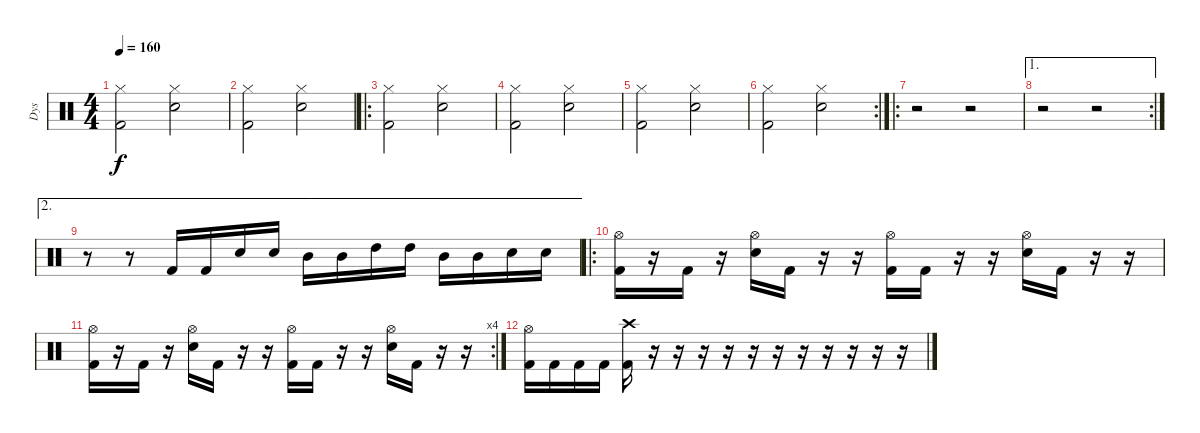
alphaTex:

\track ("Dys" "Dys") {instrument percussion}
\staff {score}
\articulation defaults
\ts (4 4)
\tempo 160
\clef neutral
\ks c
("Hi-Hat (closed)" "Kick (hit) 2").2{dy f} ("Hi-Hat (closed)" "Snare (hit) 2").2 |
("Hi-Hat (closed)" "Kick (hit) 2").2 ("Hi-Hat (closed)" "Snare (hit) 2").2 |
\ro
("Hi-Hat (closed)" "Kick (hit) 2").2 ("Hi-Hat (closed)" "Snare (hit) 2").2 |
("Hi-Hat (closed)" "Kick (hit) 2").2 ("Hi-Hat (closed)" "Snare (hit) 2").2 |
("Hi-Hat (closed)" "Kick (hit) 2").2 ("Hi-Hat (closed)" "Snare (hit) 2").2 |
\rc 2
("Hi-Hat (closed)" "Kick (hit) 2").2 ("Hi-Hat (closed)" "Snare (hit) 2").2 |
\ro
r.2 r.2 |
\ae 1
\rc 2
r.2 r.2 |
\ae 2
r.8 r.8 "Kick (hit) 2".16 "Kick (hit) 2".16 "Snare (hit) 2".16 "Snare (hit) 2".16 "Mid Tom (hit)".16 "Mid Tom (hit)".16 "High Tom (hit)".16 "High Tom (hit)".16 "Mid Tom (hit)".16 "Mid Tom (hit)".16 "Snare (hit) 2".16 "Snare (hit) 2".16 |
\ro
("Hi-Hat (open)" "Kick (hit) 2").16 r.16 "Kick (hit) 2".16 r.16 ("Hi-Hat (open)" "Snare (hit) 2").16 "Kick (hit) 2".16 r.16 r.16 ("Hi-Hat (open)" "Kick (hit) 2").16 "Kick (hit) 2".16 r.16 r.16 ("Hi-Hat (open)" "Snare (hit) 2").16 "Kick (hit) 2".16 r.16 r.16 |
\rc 4
("Hi-Hat (open)" "Kick (hit) 2").16 r.16 "Kick (hit) 2".16 r.16 ("Hi-Hat (open)" "Snare (hit) 2").16 "Kick (hit) 2".16 r.16 r.16 ("Hi-Hat (open)" "Kick (hit) 2").16 "Kick (hit) 2".16 r.16 r.16 ("Hi-Hat (open)" "Snare (hit) 2").16 "Kick (hit) 2".16 r.16 r.16 |
("Hi-Hat (open)" "Kick (hit) 2").16 "Kick (hit) 2".16 "Kick (hit) 2".16 "Kick (hit) 2".16 ("Crash high (hit)" "Kick (hit) 2").16 r.16 r.16 r.16 r.16 r.16 r.16 r.16 r.16 r.16 r.16 r.16
